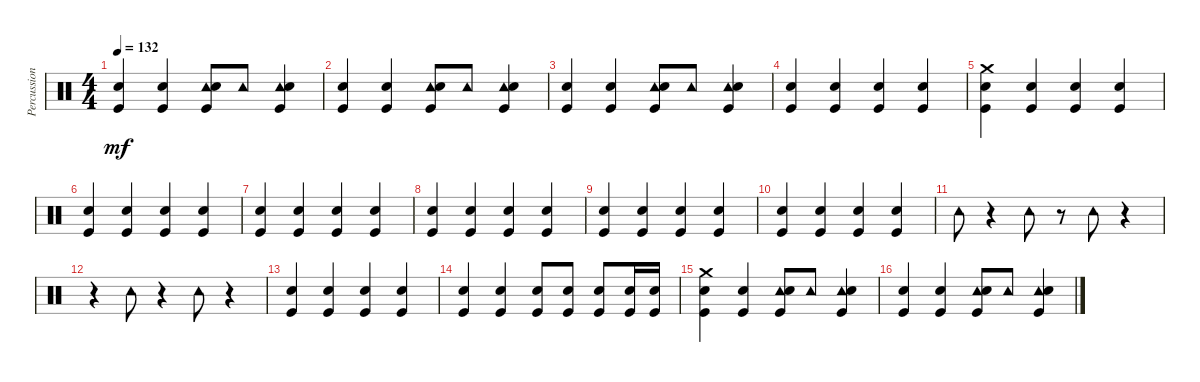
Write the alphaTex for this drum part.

\track ("Percussion" "Percussion") {instrument percussion}
\staff {score}
\articulation defaults
\ts (4 4)
\tempo 132
\clef neutral
\ks c
("Kick (hit)" "Snare (hit) 2").4{dy mf} ("Snare (hit) 2" "Kick (hit)").4 ("Tambourine (hit)" "Snare (hit) 2" "Kick (hit)").8 "Tambourine (hit)".8 ("Tambourine (hit)" "Snare (hit) 2" "Kick (hit)").4 |
("Snare (hit) 2" "Kick (hit)").4 ("Kick (hit)" "Snare (hit) 2").4 ("Tambourine (hit)" "Kick (hit)" "Snare (hit) 2").8 "Tambourine (hit)".8 ("Tambourine (hit)" "Kick (hit)" "Snare (hit) 2").4 |
("Kick (hit)" "Snare (hit) 2").4 ("Kick (hit)" "Snare (hit) 2").4 ("Tambourine (hit)" "Kick (hit)" "Snare (hit) 2").8 "Tambourine (hit)".8 ("Tambourine (hit)" "Kick (hit)" "Snare (hit) 2").4 |
("Kick (hit)" "Snare (hit) 2").4 ("Snare (hit) 2" "Kick (hit)").4 ("Kick (hit)" "Snare (hit) 2").4 ("Snare (hit) 2" "Kick (hit)").4 |
("Crash medium (hit)" "Kick (hit)" "Snare (hit) 2").4 ("Snare (hit) 2" "Kick (hit)").4 ("Snare (hit) 2" "Kick (hit)").4 ("Snare (hit) 2" "Kick (hit)").4 |
("Snare (hit) 2" "Kick (hit)").4 ("Kick (hit)" "Snare (hit) 2").4 ("Kick (hit)" "Snare (hit) 2").4 ("Kick (hit)" "Snare (hit) 2").4 |
("Kick (hit)" "Snare (hit) 2").4 ("Kick (hit)" "Snare (hit) 2").4 ("Kick (hit)" "Snare (hit) 2").4 ("Kick (hit)" "Snare (hit) 2").4 |
("Kick (hit)" "Snare (hit) 2").4 ("Snare (hit) 2" "Kick (hit)").4 ("Kick (hit)" "Snare (hit) 2").4 ("Snare (hit) 2" "Kick (hit)").4 |
("Kick (hit)" "Snare (hit) 2").4 ("Snare (hit) 2" "Kick (hit)").4 ("Snare (hit) 2" "Kick (hit)").4 ("Snare (hit) 2" "Kick (hit)").4 |
("Snare (hit) 2" "Kick (hit)").4 ("Kick (hit)" "Snare (hit) 2").4 ("Kick (hit)" "Snare (hit) 2").4 ("Kick (hit)" "Snare (hit) 2").4 |
"Tambourine (hit)".8 r.4 "Tambourine (hit)".8 r.8 "Tambourine (hit)".8 r.4 |
r.4 "Tambourine (hit)".8 r.4 "Tambourine (hit)".8 r.4 |
("Snare (hit) 2" "Kick (hit)").4 ("Snare (hit) 2" "Kick (hit)").4 ("Snare (hit) 2" "Kick (hit)").4 ("Kick (hit)" "Snare (hit) 2").4 |
("Kick (hit)" "Snare (hit) 2").4 ("Kick (hit)" "Snare (hit) 2").4 ("Kick (hit)" "Snare (hit) 2").8 ("Kick (hit)" "Snare (hit) 2").8 ("Kick (hit)" "Snare (hit) 2").8 ("Kick (hit)" "Snare (hit) 2").16 ("Kick (hit)" "Snare (hit) 2").16 |
("Crash medium (hit)" "Kick (hit)" "Snare (hit) 2").4 ("Snare (hit) 2" "Kick (hit)").4 ("Tambourine (hit)" "Snare (hit) 2" "Kick (hit)").8 "Tambourine (hit)".8 ("Tambourine (hit)" "Snare (hit) 2" "Kick (hit)").4 |
("Snare (hit) 2" "Kick (hit)").4 ("Kick (hit)" "Snare (hit) 2").4 ("Tambourine (hit)" "Kick (hit)" "Snare (hit) 2").8 "Tambourine (hit)".8 ("Tambourine (hit)" "Kick (hit)" "Snare (hit) 2").4
